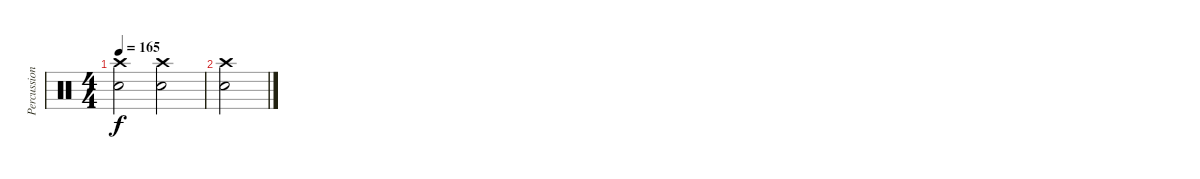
\track ("Percussion" "Percussion") {instrument percussion}
\staff {score}
\articulation defaults
\ts (4 4)
\tempo 165
\clef neutral
\ks c
("Crash high (hit)" "Electric Snare (hit)").2{dy f} ("Crash high (hit)" "Electric Snare (hit)").2 |
("Crash high (hit)" "Electric Snare (hit)").2
